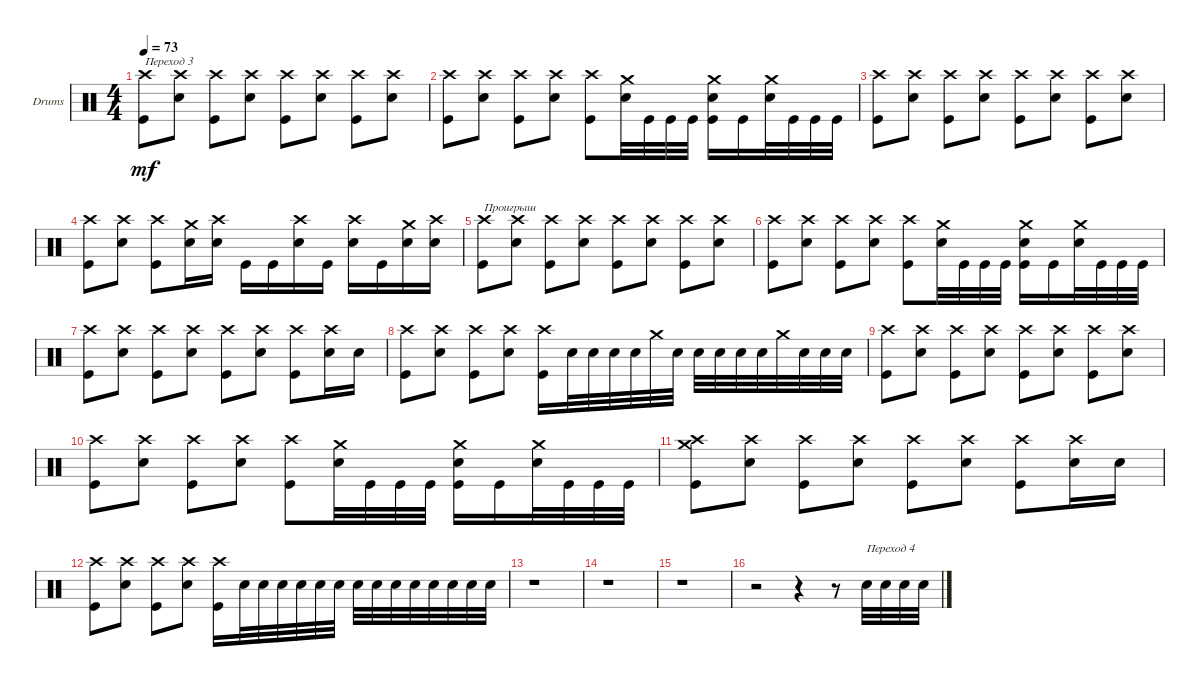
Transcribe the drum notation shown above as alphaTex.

\defaultSystemsLayout 4
\bracketExtendMode groupsimilarinstruments
\firstSystemTrackNameOrientation horizontal
\otherSystemsTrackNameOrientation horizontal
\track ("Drumkit" "Drums") {instrument percussion}
\staff {score}
\articulation defaults
\ts (4 4)
\tempo 73
\clef neutral
\ks c
("Crash high (hit)" "Kick (hit)").8{txt "Переход 3" dy mf} ("Crash high (hit)" "Snare (hit) 2").8 ("Crash high (hit)" "Kick (hit)").8 ("Crash high (hit)" "Snare (hit) 2").8 ("Crash high (hit)" "Kick (hit)").8 ("Crash high (hit)" "Snare (hit) 2").8 ("Crash high (hit)" "Kick (hit)").8 ("Crash high (hit)" "Snare (hit) 2").8 |
("Crash high (hit)" "Kick (hit)").8 ("Crash high (hit)" "Snare (hit) 2").8 ("Crash high (hit)" "Kick (hit)").8 ("Crash high (hit)" "Snare (hit) 2").8 ("Crash high (hit)" "Kick (hit)").8 ("Snare (hit) 2" "Crash medium (hit)").32 "Kick (hit)".32 "Kick (hit)".32 "Kick (hit)".32 ("Kick (hit)" "Crash medium (hit)" "Snare (hit) 2").16 "Kick (hit)".16 ("Snare (hit) 2" "Crash medium (hit)").32 "Kick (hit)".32 "Kick (hit)".32 "Kick (hit)".32 |
("Crash high (hit)" "Kick (hit)").8 ("Crash high (hit)" "Snare (hit) 2").8 ("Crash high (hit)" "Kick (hit)").8 ("Crash high (hit)" "Snare (hit) 2").8 ("Crash high (hit)" "Kick (hit)").8 ("Crash high (hit)" "Snare (hit) 2").8 ("Crash high (hit)" "Kick (hit)").8 ("Crash high (hit)" "Snare (hit) 2").8 |
("Crash high (hit)" "Kick (hit)").8 ("Crash high (hit)" "Snare (hit) 2").8 ("Crash high (hit)" "Kick (hit)").8 ("Snare (hit) 2" "Crash medium (hit)").16 ("Crash high (hit)" "Snare (hit) 2").16 "Kick (hit)".16 "Kick (hit)".16 ("Snare (hit) 2" "Crash high (hit)").16 "Kick (hit)".16 ("Crash high (hit)" "Snare (hit) 2").16 "Kick (hit)".16 ("Snare (hit) 2" "Crash medium (hit)").16 ("Crash high (hit)" "Snare (hit) 2").16 |
("Crash high (hit)" "Kick (hit)").8{txt "Проигрыш"} ("Crash high (hit)" "Snare (hit) 2").8 ("Crash high (hit)" "Kick (hit)").8 ("Crash high (hit)" "Snare (hit) 2").8 ("Crash high (hit)" "Kick (hit)").8 ("Crash high (hit)" "Snare (hit) 2").8 ("Crash high (hit)" "Kick (hit)").8 ("Crash high (hit)" "Snare (hit) 2").8 |
("Crash high (hit)" "Kick (hit)").8 ("Crash high (hit)" "Snare (hit) 2").8 ("Crash high (hit)" "Kick (hit)").8 ("Crash high (hit)" "Snare (hit) 2").8 ("Crash high (hit)" "Kick (hit)").8 ("Snare (hit) 2" "Crash medium (hit)").32 "Kick (hit)".32 "Kick (hit)".32 "Kick (hit)".32 ("Kick (hit)" "Crash medium (hit)" "Snare (hit) 2").16 "Kick (hit)".16 ("Snare (hit) 2" "Crash medium (hit)").32 "Kick (hit)".32 "Kick (hit)".32 "Kick (hit)".32 |
("Crash high (hit)" "Kick (hit)").8 ("Crash high (hit)" "Snare (hit) 2").8 ("Crash high (hit)" "Kick (hit)").8 ("Crash high (hit)" "Snare (hit) 2").8 ("Crash high (hit)" "Kick (hit)").8 ("Crash high (hit)" "Snare (hit) 2").8 ("Crash high (hit)" "Kick (hit)").8 ("Snare (hit) 2" "Crash high (hit)").16 "Snare (hit) 2".16 |
("Crash high (hit)" "Kick (hit)").8 ("Crash high (hit)" "Snare (hit) 2").8 ("Crash high (hit)" "Kick (hit)").8 ("Crash high (hit)" "Snare (hit) 2").8 ("Crash high (hit)" "Kick (hit)").16 "Snare (hit) 2".32 "Snare (hit) 2".32 "Snare (hit) 2".32 "Snare (hit) 2".32 "Crash medium (hit)".32 "Snare (hit) 2".32 "Snare (hit) 2".32 "Snare (hit) 2".32 "Snare (hit) 2".32 "Snare (hit) 2".32 "Crash medium (hit)".32 "Snare (hit) 2".32 "Snare (hit) 2".32 "Snare (hit) 2".32 |
("Crash high (hit)" "Kick (hit)").8 ("Crash high (hit)" "Snare (hit) 2").8 ("Crash high (hit)" "Kick (hit)").8 ("Crash high (hit)" "Snare (hit) 2").8 ("Crash high (hit)" "Kick (hit)").8 ("Crash high (hit)" "Snare (hit) 2").8 ("Crash high (hit)" "Kick (hit)").8 ("Crash high (hit)" "Snare (hit) 2").8 |
("Crash high (hit)" "Kick (hit)").8 ("Crash high (hit)" "Snare (hit) 2").8 ("Crash high (hit)" "Kick (hit)").8 ("Crash high (hit)" "Snare (hit) 2").8 ("Crash high (hit)" "Kick (hit)").8 ("Snare (hit) 2" "Crash medium (hit)").32 "Kick (hit)".32 "Kick (hit)".32 "Kick (hit)".32 ("Kick (hit)" "Crash medium (hit)" "Snare (hit) 2").16 "Kick (hit)".16 ("Snare (hit) 2" "Crash medium (hit)").32 "Kick (hit)".32 "Kick (hit)".32 "Kick (hit)".32 |
("Crash high (hit)" "Kick (hit)" "Crash medium (hit)").8 ("Crash high (hit)" "Snare (hit) 2").8 ("Crash high (hit)" "Kick (hit)").8 ("Crash high (hit)" "Snare (hit) 2").8 ("Crash high (hit)" "Kick (hit)").8 ("Crash high (hit)" "Snare (hit) 2").8 ("Crash high (hit)" "Kick (hit)").8 ("Snare (hit) 2" "Crash high (hit)").16 "Snare (hit) 2".16 |
("Crash high (hit)" "Kick (hit)").8 ("Crash high (hit)" "Snare (hit) 2").8 ("Crash high (hit)" "Kick (hit)").8 ("Crash high (hit)" "Snare (hit) 2").8 ("Crash high (hit)" "Kick (hit)").16 "Snare (hit) 2".32 "Snare (hit) 2".32 "Snare (hit) 2".32 "Snare (hit) 2".32 "Snare (hit) 2".32 "Snare (hit) 2".32 "Snare (hit) 2".32 "Snare (hit) 2".32 "Snare (hit) 2".32 "Snare (hit) 2".32 "Snare (hit) 2".32 "Snare (hit) 2".32 "Snare (hit) 2".32 "Snare (hit) 2".32 |
r.1 |
r.1 |
r.1 |
r.2 r.4 r.8 "Snare (hit) 2".32{txt "Переход 4"} "Snare (hit) 2".32 "Snare (hit) 2".32 "Snare (hit) 2".32
